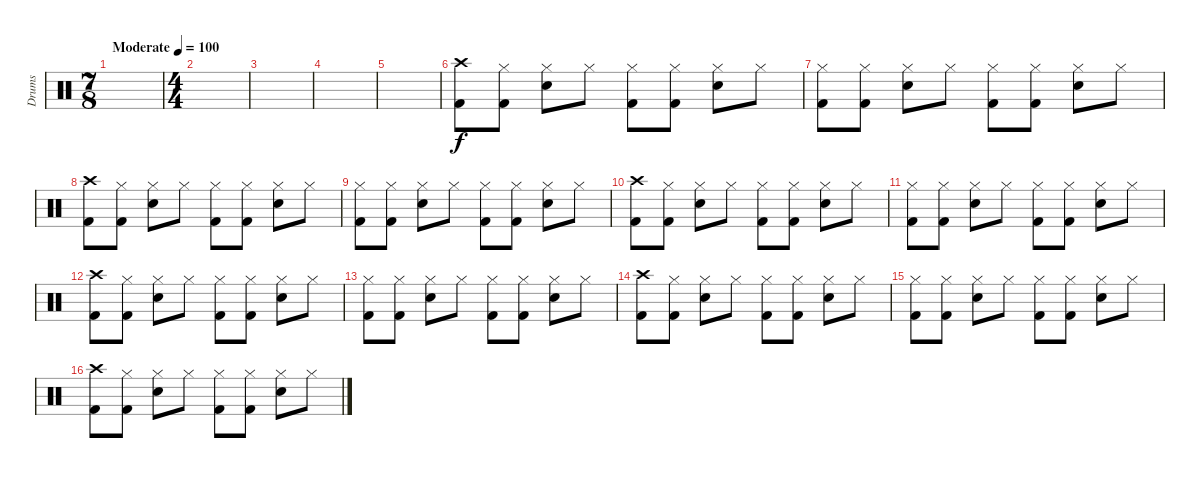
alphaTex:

\track ("Drums" "Drums") {instrument percussion}
\staff {score}
\articulation defaults
\ts (7 8)
\tempo (100 "Moderate")
\clef neutral
\ks c
|
\ts (4 4)
|
|
|
|
("Crash high (hit)" "Kick (hit) 2").8 ("Hi-Hat (closed)" "Kick (hit) 2").8 ("Hi-Hat (closed)" "Electric Snare (hit)").8 "Hi-Hat (closed)".8 ("Hi-Hat (closed)" "Kick (hit) 2").8 ("Hi-Hat (closed)" "Kick (hit) 2").8 ("Hi-Hat (closed)" "Electric Snare (hit)").8 "Hi-Hat (closed)".8 |
("Hi-Hat (closed)" "Kick (hit) 2").8 ("Hi-Hat (closed)" "Kick (hit) 2").8 ("Hi-Hat (closed)" "Electric Snare (hit)").8 "Hi-Hat (closed)".8 ("Hi-Hat (closed)" "Kick (hit) 2").8 ("Hi-Hat (closed)" "Kick (hit) 2").8 ("Hi-Hat (closed)" "Electric Snare (hit)").8 "Hi-Hat (closed)".8 |
("Crash high (hit)" "Kick (hit) 2").8 ("Hi-Hat (closed)" "Kick (hit) 2").8 ("Hi-Hat (closed)" "Electric Snare (hit)").8 "Hi-Hat (closed)".8 ("Hi-Hat (closed)" "Kick (hit) 2").8 ("Hi-Hat (closed)" "Kick (hit) 2").8 ("Hi-Hat (closed)" "Electric Snare (hit)").8 "Hi-Hat (closed)".8 |
("Hi-Hat (closed)" "Kick (hit) 2").8 ("Hi-Hat (closed)" "Kick (hit) 2").8 ("Hi-Hat (closed)" "Electric Snare (hit)").8 "Hi-Hat (closed)".8 ("Hi-Hat (closed)" "Kick (hit) 2").8 ("Hi-Hat (closed)" "Kick (hit) 2").8 ("Hi-Hat (closed)" "Electric Snare (hit)").8 "Hi-Hat (closed)".8 |
("Crash high (hit)" "Kick (hit) 2").8 ("Hi-Hat (closed)" "Kick (hit) 2").8 ("Hi-Hat (closed)" "Electric Snare (hit)").8 "Hi-Hat (closed)".8 ("Hi-Hat (closed)" "Kick (hit) 2").8 ("Hi-Hat (closed)" "Kick (hit) 2").8 ("Hi-Hat (closed)" "Electric Snare (hit)").8 "Hi-Hat (closed)".8 |
("Hi-Hat (closed)" "Kick (hit) 2").8 ("Hi-Hat (closed)" "Kick (hit) 2").8 ("Hi-Hat (closed)" "Electric Snare (hit)").8 "Hi-Hat (closed)".8 ("Hi-Hat (closed)" "Kick (hit) 2").8 ("Hi-Hat (closed)" "Kick (hit) 2").8 ("Hi-Hat (closed)" "Electric Snare (hit)").8 "Hi-Hat (closed)".8 |
("Crash high (hit)" "Kick (hit) 2").8 ("Hi-Hat (closed)" "Kick (hit) 2").8 ("Hi-Hat (closed)" "Electric Snare (hit)").8 "Hi-Hat (closed)".8 ("Hi-Hat (closed)" "Kick (hit) 2").8 ("Hi-Hat (closed)" "Kick (hit) 2").8 ("Hi-Hat (closed)" "Electric Snare (hit)").8 "Hi-Hat (closed)".8 |
("Hi-Hat (closed)" "Kick (hit) 2").8 ("Hi-Hat (closed)" "Kick (hit) 2").8 ("Hi-Hat (closed)" "Electric Snare (hit)").8 "Hi-Hat (closed)".8 ("Hi-Hat (closed)" "Kick (hit) 2").8 ("Hi-Hat (closed)" "Kick (hit) 2").8 ("Hi-Hat (closed)" "Electric Snare (hit)").8 "Hi-Hat (closed)".8 |
("Crash high (hit)" "Kick (hit) 2").8 ("Hi-Hat (closed)" "Kick (hit) 2").8 ("Hi-Hat (closed)" "Electric Snare (hit)").8 "Hi-Hat (closed)".8 ("Hi-Hat (closed)" "Kick (hit) 2").8 ("Hi-Hat (closed)" "Kick (hit) 2").8 ("Hi-Hat (closed)" "Electric Snare (hit)").8 "Hi-Hat (closed)".8 |
("Hi-Hat (closed)" "Kick (hit) 2").8 ("Hi-Hat (closed)" "Kick (hit) 2").8 ("Hi-Hat (closed)" "Electric Snare (hit)").8 "Hi-Hat (closed)".8 ("Hi-Hat (closed)" "Kick (hit) 2").8 ("Hi-Hat (closed)" "Kick (hit) 2").8 ("Hi-Hat (closed)" "Electric Snare (hit)").8 "Hi-Hat (closed)".8 |
("Crash high (hit)" "Kick (hit) 2").8 ("Hi-Hat (closed)" "Kick (hit) 2").8 ("Hi-Hat (closed)" "Electric Snare (hit)").8 "Hi-Hat (closed)".8 ("Hi-Hat (closed)" "Kick (hit) 2").8 ("Hi-Hat (closed)" "Kick (hit) 2").8 ("Hi-Hat (closed)" "Electric Snare (hit)").8 "Hi-Hat (closed)".8
